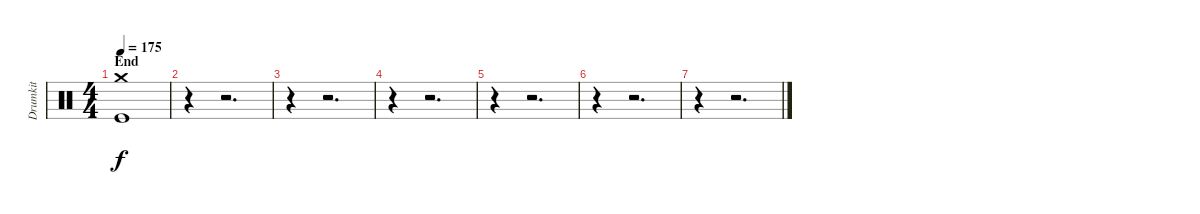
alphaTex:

\track ("Drumkit" "Drumkit") {instrument percussion}
\staff {score}
\articulation defaults
\ts (4 4)
\section ("" "End")
\tempo 175
\clef neutral
\ks c
("Kick (hit)" "Crash medium (hit)").1{dy f} |
r.4 r.2{d} |
r.4 r.2{d} |
r.4 r.2{d} |
r.4 r.2{d} |
r.4 r.2{d} |
r.4 r.2{d}
